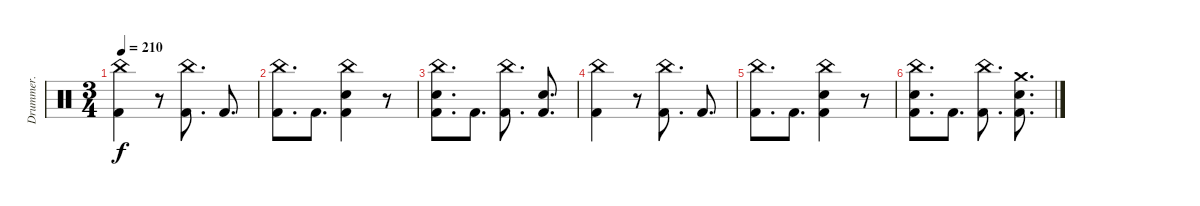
\track ("Drummer." "Drummer.") {instrument percussion}
\staff {score}
\articulation defaults
\ts (3 4)
\tempo 210
\clef neutral
\ks c
("China (hit)" "Kick (hit) 2").4{dy f} r.8 ("China (hit)" "Kick (hit) 2").8{d} "Kick (hit) 2".8{d} |
("China (hit)" "Kick (hit) 2").8{d} "Kick (hit) 2".8{d} ("China (hit)" "Snare (hit) 2" "Kick (hit) 2").4 r.8 |
("Snare (hit)" "China (hit)" "Kick (hit) 2").8{d} "Kick (hit) 2".8{d} ("China (hit)" "Kick (hit) 2").8{d} ("Snare (hit) 2" "Kick (hit) 2").8{d} |
("China (hit)" "Kick (hit) 2").4 r.8 ("China (hit)" "Kick (hit) 2").8{d} "Kick (hit) 2".8{d} |
("China (hit)" "Kick (hit) 2").8{d} "Kick (hit) 2".8{d} ("China (hit)" "Snare (hit) 2" "Kick (hit) 2").4 r.8 |
("Snare (hit)" "China (hit)" "Kick (hit) 2").8{d} "Kick (hit) 2".8{d} ("China (hit)" "Kick (hit) 2").8{d} ("Crash medium (hit)" "Snare (hit) 2" "Kick (hit) 2").8{d}
